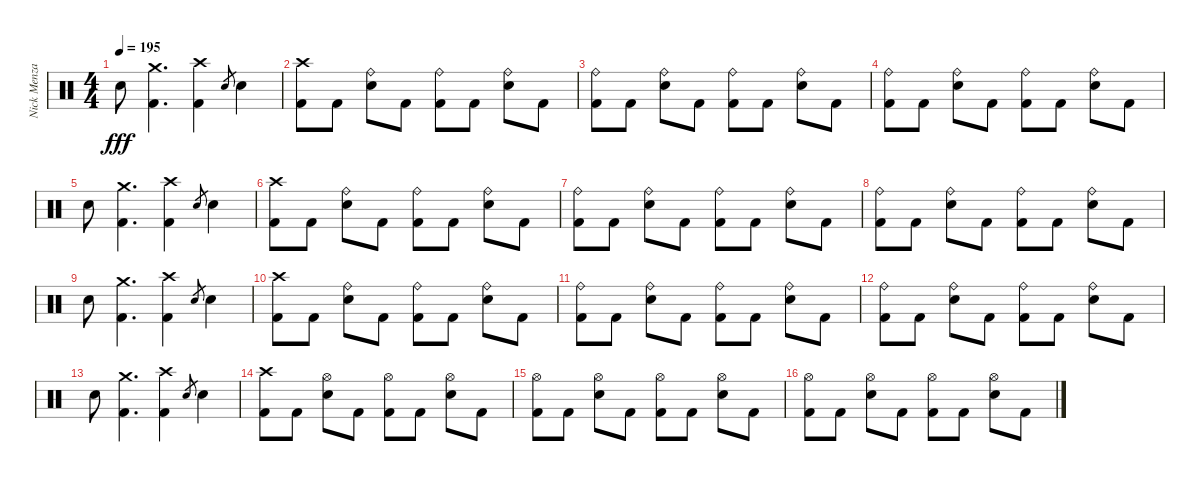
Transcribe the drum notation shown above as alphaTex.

\track ("Nick Menza (Drums)" "Nick Menza") {instrument percussion}
\staff {score}
\articulation defaults
\ts (4 4)
\tempo 195
\clef neutral
\ks c "Electric Snare (hit)".8{dy fff}
("Kick (hit) 2" "Crash medium (hit)").4{d} ("Kick (hit) 2" "Crash high (hit)").4 "Electric Snare (hit)".8{gr} "Electric Snare (hit)".4 |
("Kick (hit) 2" "Crash high (hit)").8 "Kick (hit) 2".8 ("Electric Snare (hit)" "Ride (bell)").8 "Kick (hit) 2".8 ("Kick (hit) 2" "Ride (bell)").8 "Kick (hit) 2".8 ("Electric Snare (hit)" "Ride (bell)").8 "Kick (hit) 2".8 |
("Kick (hit) 2" "Ride (bell)").8 "Kick (hit) 2".8 ("Electric Snare (hit)" "Ride (bell)").8 "Kick (hit) 2".8 ("Kick (hit) 2" "Ride (bell)").8 "Kick (hit) 2".8 ("Electric Snare (hit)" "Ride (bell)").8 "Kick (hit) 2".8 |
("Kick (hit) 2" "Ride (bell)").8 "Kick (hit) 2".8 ("Electric Snare (hit)" "Ride (bell)").8 "Kick (hit) 2".8 ("Kick (hit) 2" "Ride (bell)").8 "Kick (hit) 2".8 ("Electric Snare (hit)" "Ride (bell)").8 "Kick (hit) 2".8 |
"Electric Snare (hit)".8 ("Kick (hit) 2" "Crash medium (hit)").4{d} ("Kick (hit) 2" "Crash high (hit)").4 "Electric Snare (hit)".8{gr} "Electric Snare (hit)".4 |
("Kick (hit) 2" "Crash high (hit)").8 "Kick (hit) 2".8 ("Electric Snare (hit)" "Ride (bell)").8 "Kick (hit) 2".8 ("Kick (hit) 2" "Ride (bell)").8 "Kick (hit) 2".8 ("Electric Snare (hit)" "Ride (bell)").8 "Kick (hit) 2".8 |
("Kick (hit) 2" "Ride (bell)").8 "Kick (hit) 2".8 ("Electric Snare (hit)" "Ride (bell)").8 "Kick (hit) 2".8 ("Kick (hit) 2" "Ride (bell)").8 "Kick (hit) 2".8 ("Electric Snare (hit)" "Ride (bell)").8 "Kick (hit) 2".8 |
("Kick (hit) 2" "Ride (bell)").8 "Kick (hit) 2".8 ("Electric Snare (hit)" "Ride (bell)").8 "Kick (hit) 2".8 ("Kick (hit) 2" "Ride (bell)").8 "Kick (hit) 2".8 ("Electric Snare (hit)" "Ride (bell)").8 "Kick (hit) 2".8 |
"Electric Snare (hit)".8 ("Kick (hit) 2" "Crash medium (hit)").4{d} ("Kick (hit) 2" "Crash high (hit)").4 "Electric Snare (hit)".8{gr} "Electric Snare (hit)".4 |
("Kick (hit) 2" "Crash high (hit)").8 "Kick (hit) 2".8 ("Electric Snare (hit)" "Ride (bell)").8 "Kick (hit) 2".8 ("Kick (hit) 2" "Ride (bell)").8 "Kick (hit) 2".8 ("Electric Snare (hit)" "Ride (bell)").8 "Kick (hit) 2".8 |
("Kick (hit) 2" "Ride (bell)").8 "Kick (hit) 2".8 ("Electric Snare (hit)" "Ride (bell)").8 "Kick (hit) 2".8 ("Kick (hit) 2" "Ride (bell)").8 "Kick (hit) 2".8 ("Electric Snare (hit)" "Ride (bell)").8 "Kick (hit) 2".8 |
("Kick (hit) 2" "Ride (bell)").8 "Kick (hit) 2".8 ("Electric Snare (hit)" "Ride (bell)").8 "Kick (hit) 2".8 ("Kick (hit) 2" "Ride (bell)").8 "Kick (hit) 2".8 ("Electric Snare (hit)" "Ride (bell)").8 "Kick (hit) 2".8 |
"Electric Snare (hit)".8 ("Kick (hit) 2" "Crash medium (hit)").4{d} ("Kick (hit) 2" "Crash high (hit)").4 "Electric Snare (hit)".8{gr} "Electric Snare (hit)".4 |
("Kick (hit) 2" "Crash high (hit)").8 "Kick (hit) 2".8 ("Electric Snare (hit)" "Hi-Hat (open)").8 "Kick (hit) 2".8 ("Kick (hit) 2" "Hi-Hat (open)").8 "Kick (hit) 2".8 ("Electric Snare (hit)" "Hi-Hat (open)").8 "Kick (hit) 2".8 |
("Kick (hit) 2" "Hi-Hat (open)").8 "Kick (hit) 2".8 ("Electric Snare (hit)" "Hi-Hat (open)").8 "Kick (hit) 2".8 ("Kick (hit) 2" "Hi-Hat (open)").8 "Kick (hit) 2".8 ("Electric Snare (hit)" "Hi-Hat (open)").8 "Kick (hit) 2".8 |
("Kick (hit) 2" "Hi-Hat (open)").8 "Kick (hit) 2".8 ("Electric Snare (hit)" "Hi-Hat (open)").8 "Kick (hit) 2".8 ("Kick (hit) 2" "Hi-Hat (open)").8 "Kick (hit) 2".8 ("Electric Snare (hit)" "Hi-Hat (open)").8 "Kick (hit) 2".8
